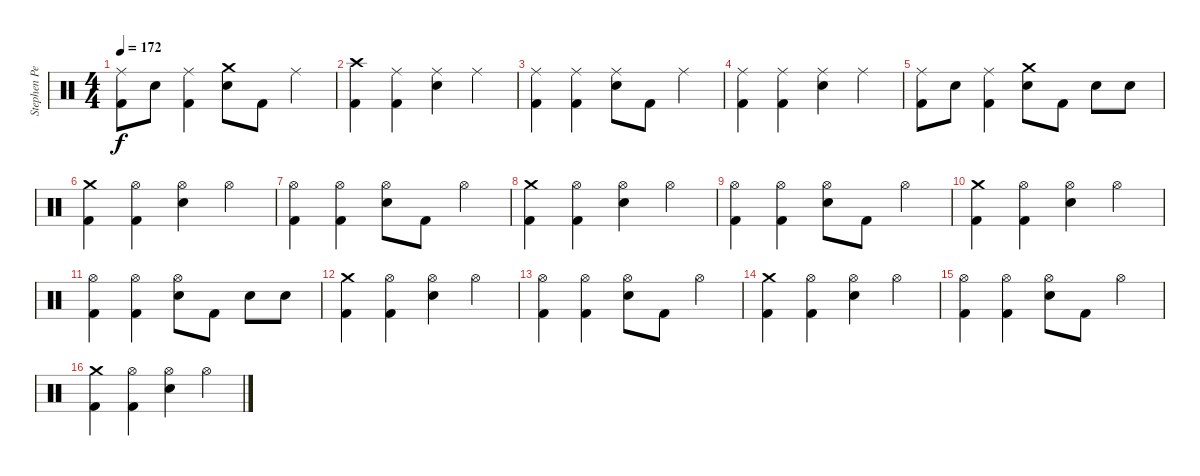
\track ("Stephen Perkins" "Stephen Pe") {instrument percussion}
\staff {score}
\articulation defaults
\ts (4 4)
\tempo 172
\clef neutral
\ks c
("Ride (middle)" "Kick (hit) 2").8{dy f} "Snare (hit) 2".8 ("Ride (middle)" "Kick (hit) 2").4 ("Crash medium (hit)" "Snare (hit) 2").8 "Kick (hit) 2".8 "Ride (middle)".4 |
("Crash high (hit)" "Kick (hit) 2").4 ("Ride (middle)" "Kick (hit) 2").4 ("Ride (middle)" "Snare (hit) 2").4 "Ride (middle)".4 |
("Ride (middle)" "Kick (hit) 2").4 ("Ride (middle)" "Kick (hit) 2").4 ("Ride (middle)" "Snare (hit) 2").8 "Kick (hit) 2".8 "Ride (middle)".4 |
("Ride (middle)" "Kick (hit) 2").4 ("Ride (middle)" "Kick (hit) 2").4 ("Ride (middle)" "Snare (hit) 2").4 "Ride (middle)".4 |
("Ride (middle)" "Kick (hit) 2").8 "Snare (hit) 2".8 ("Ride (middle)" "Kick (hit) 2").4 ("Crash medium (hit)" "Snare (hit) 2").8 "Kick (hit) 2".8 "Snare (hit) 2".8 "Snare (hit) 2".8 |
("Crash medium (hit)" "Kick (hit) 2").4 ("Hi-Hat (open)" "Kick (hit) 2").4 ("Hi-Hat (open)" "Snare (hit) 2").4 "Hi-Hat (open)".4 |
("Hi-Hat (open)" "Kick (hit) 2").4 ("Hi-Hat (open)" "Kick (hit) 2").4 ("Hi-Hat (open)" "Snare (hit) 2").8 "Kick (hit) 2".8 "Hi-Hat (open)".4 |
("Crash medium (hit)" "Kick (hit) 2").4 ("Hi-Hat (open)" "Kick (hit) 2").4 ("Hi-Hat (open)" "Snare (hit) 2").4 "Hi-Hat (open)".4 |
("Hi-Hat (open)" "Kick (hit) 2").4 ("Hi-Hat (open)" "Kick (hit) 2").4 ("Hi-Hat (open)" "Snare (hit) 2").8 "Kick (hit) 2".8 "Hi-Hat (open)".4 |
("Crash medium (hit)" "Kick (hit) 2").4 ("Hi-Hat (open)" "Kick (hit) 2").4 ("Hi-Hat (open)" "Snare (hit) 2").4 "Hi-Hat (open)".4 |
("Hi-Hat (open)" "Kick (hit) 2").4 ("Hi-Hat (open)" "Kick (hit) 2").4 ("Hi-Hat (open)" "Snare (hit) 2").8 "Kick (hit) 2".8 "Snare (hit) 2".8 "Snare (hit) 2".8 |
("Crash medium (hit)" "Kick (hit) 2").4 ("Hi-Hat (open)" "Kick (hit) 2").4 ("Hi-Hat (open)" "Snare (hit) 2").4 "Hi-Hat (open)".4 |
("Hi-Hat (open)" "Kick (hit) 2").4 ("Hi-Hat (open)" "Kick (hit) 2").4 ("Hi-Hat (open)" "Snare (hit) 2").8 "Kick (hit) 2".8 "Hi-Hat (open)".4 |
("Crash medium (hit)" "Kick (hit) 2").4 ("Hi-Hat (open)" "Kick (hit) 2").4 ("Hi-Hat (open)" "Snare (hit) 2").4 "Hi-Hat (open)".4 |
("Hi-Hat (open)" "Kick (hit) 2").4 ("Hi-Hat (open)" "Kick (hit) 2").4 ("Hi-Hat (open)" "Snare (hit) 2").8 "Kick (hit) 2".8 "Hi-Hat (open)".4 |
("Crash medium (hit)" "Kick (hit) 2").4 ("Hi-Hat (open)" "Kick (hit) 2").4 ("Hi-Hat (open)" "Snare (hit) 2").4 "Hi-Hat (open)".4
